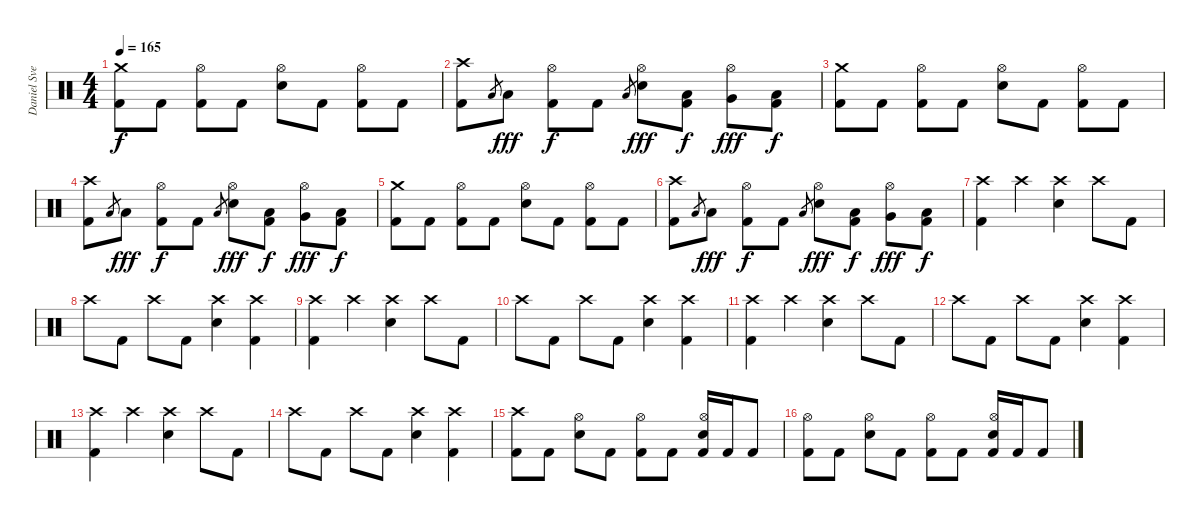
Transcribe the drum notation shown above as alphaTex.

\track ("Daniel Svensson" "Daniel Sve") {instrument percussion}
\staff {score}
\articulation defaults
\ts (4 4)
\tempo 165
\clef neutral
\ks c
("Crash medium (hit)" "Kick (hit) 2").8{dy f} "Kick (hit) 2".8 ("Hi-Hat (open)" "Kick (hit) 2").8 "Kick (hit) 2".8 ("Hi-Hat (open)" "Electric Snare (hit)").8 "Kick (hit) 2".8 ("Hi-Hat (open)" "Kick (hit) 2").8 "Kick (hit) 2".8 |
("Crash high (hit)" "Kick (hit) 2").8 "Low Tom (hit)".8{gr} "Low Tom (hit)".8{dy fff} ("Hi-Hat (open)" "Kick (hit) 2").8{dy f} "Kick (hit) 2".8 "Low Tom (hit)".8{gr} ("Hi-Hat (open)" "Electric Snare (hit)").8{dy fff} ("Low Tom (hit)" "Kick (hit) 2").8{dy f} ("Hi-Hat (open)" "Very Low Tom (hit)").8{dy fff} ("Low Floor Tom (hit)" "Kick (hit) 2").8{dy f} |
("Crash medium (hit)" "Kick (hit) 2").8 "Kick (hit) 2".8 ("Hi-Hat (open)" "Kick (hit) 2").8 "Kick (hit) 2".8 ("Hi-Hat (open)" "Electric Snare (hit)").8 "Kick (hit) 2".8 ("Hi-Hat (open)" "Kick (hit) 2").8 "Kick (hit) 2".8 |
("Crash high (hit)" "Kick (hit) 2").8 "Low Tom (hit)".8{gr} "Low Tom (hit)".8{dy fff} ("Hi-Hat (open)" "Kick (hit) 2").8{dy f} "Kick (hit) 2".8 "Low Tom (hit)".8{gr} ("Hi-Hat (open)" "Electric Snare (hit)").8{dy fff} ("Low Tom (hit)" "Kick (hit) 2").8{dy f} ("Hi-Hat (open)" "Very Low Tom (hit)").8{dy fff} ("Low Floor Tom (hit)" "Kick (hit) 2").8{dy f} |
("Crash medium (hit)" "Kick (hit) 2").8 "Kick (hit) 2".8 ("Hi-Hat (open)" "Kick (hit) 2").8 "Kick (hit) 2".8 ("Hi-Hat (open)" "Electric Snare (hit)").8 "Kick (hit) 2".8 ("Hi-Hat (open)" "Kick (hit) 2").8 "Kick (hit) 2".8 |
("Crash high (hit)" "Kick (hit) 2").8 "Low Tom (hit)".8{gr} "Low Tom (hit)".8{dy fff} ("Hi-Hat (open)" "Kick (hit) 2").8{dy f} "Kick (hit) 2".8 "Low Tom (hit)".8{gr} ("Hi-Hat (open)" "Electric Snare (hit)").8{dy fff} ("Low Tom (hit)" "Kick (hit) 2").8{dy f} ("Hi-Hat (open)" "Very Low Tom (hit)").8{dy fff} ("Low Floor Tom (hit)" "Kick (hit) 2").8{dy f} |
("Crash high (hit)" "Kick (hit) 2").4 "Crash high (hit)".4 ("Crash high (hit)" "Electric Snare (hit)").4 "Crash high (hit)".8 "Kick (hit) 2".8 |
"Crash high (hit)".8 "Kick (hit) 2".8 "Crash high (hit)".8 "Kick (hit) 2".8 ("Crash high (hit)" "Electric Snare (hit)").4 ("Crash high (hit)" "Kick (hit) 2").4 |
("Crash high (hit)" "Kick (hit) 2").4 "Crash high (hit)".4 ("Crash high (hit)" "Electric Snare (hit)").4 "Crash high (hit)".8 "Kick (hit) 2".8 |
"Crash high (hit)".8 "Kick (hit) 2".8 "Crash high (hit)".8 "Kick (hit) 2".8 ("Crash high (hit)" "Electric Snare (hit)").4 ("Crash high (hit)" "Kick (hit) 2").4 |
("Crash high (hit)" "Kick (hit) 2").4 "Crash high (hit)".4 ("Crash high (hit)" "Electric Snare (hit)").4 "Crash high (hit)".8 "Kick (hit) 2".8 |
"Crash high (hit)".8 "Kick (hit) 2".8 "Crash high (hit)".8 "Kick (hit) 2".8 ("Crash high (hit)" "Electric Snare (hit)").4 ("Crash high (hit)" "Kick (hit) 2").4 |
("Crash high (hit)" "Kick (hit) 2").4 "Crash high (hit)".4 ("Crash high (hit)" "Electric Snare (hit)").4 "Crash high (hit)".8 "Kick (hit) 2".8 |
"Crash high (hit)".8 "Kick (hit) 2".8 "Crash high (hit)".8 "Kick (hit) 2".8 ("Crash high (hit)" "Electric Snare (hit)").4 ("Crash high (hit)" "Kick (hit) 2").4 |
("Crash high (hit)" "Kick (hit) 2").8 "Kick (hit) 2".8 ("Hi-Hat (open)" "Electric Snare (hit)").8 "Kick (hit) 2".8 ("Hi-Hat (open)" "Kick (hit) 2").8 "Kick (hit) 2".8 ("Hi-Hat (open)" "Electric Snare (hit)" "Kick (hit) 2").16 "Kick (hit) 2".16 "Kick (hit) 2".8 |
("Hi-Hat (open)" "Kick (hit) 2").8 "Kick (hit) 2".8 ("Hi-Hat (open)" "Electric Snare (hit)").8 "Kick (hit) 2".8 ("Hi-Hat (open)" "Kick (hit) 2").8 "Kick (hit) 2".8 ("Hi-Hat (open)" "Electric Snare (hit)" "Kick (hit) 2").16 "Kick (hit) 2".16 "Kick (hit) 2".8
